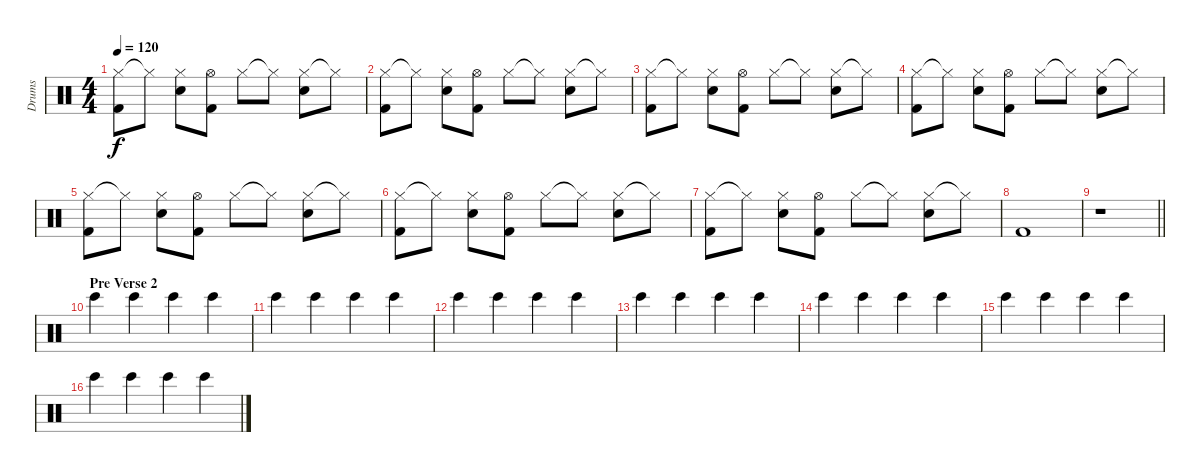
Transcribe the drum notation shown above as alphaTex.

\track ("Drums" "Drums") {instrument percussion}
\staff {score}
\articulation defaults
\ts (4 4)
\tempo 120
\clef neutral
\ks c
("Hi-Hat (closed)" "Kick (hit) 2").8{dy f} "Hi-Hat (closed)"{t}.8 ("Hi-Hat (closed)" "Electric Snare (hit)").8 ("Hi-Hat (open)" "Kick (hit) 2").8 "Hi-Hat (closed)".8 "Hi-Hat (closed)"{t}.8 ("Hi-Hat (closed)" "Electric Snare (hit)").8 "Hi-Hat (closed)"{t}.8 |
("Hi-Hat (closed)" "Kick (hit) 2").8 "Hi-Hat (closed)"{t}.8 ("Hi-Hat (closed)" "Electric Snare (hit)").8 ("Hi-Hat (open)" "Kick (hit) 2").8 "Hi-Hat (closed)".8 "Hi-Hat (closed)"{t}.8 ("Hi-Hat (closed)" "Electric Snare (hit)").8 "Hi-Hat (closed)"{t}.8 |
("Hi-Hat (closed)" "Kick (hit) 2").8 "Hi-Hat (closed)"{t}.8 ("Hi-Hat (closed)" "Electric Snare (hit)").8 ("Hi-Hat (open)" "Kick (hit) 2").8 "Hi-Hat (closed)".8 "Hi-Hat (closed)"{t}.8 ("Hi-Hat (closed)" "Electric Snare (hit)").8 "Hi-Hat (closed)"{t}.8 |
("Hi-Hat (closed)" "Kick (hit) 2").8 "Hi-Hat (closed)"{t}.8 ("Hi-Hat (closed)" "Electric Snare (hit)").8 ("Hi-Hat (open)" "Kick (hit) 2").8 "Hi-Hat (closed)".8 "Hi-Hat (closed)"{t}.8 ("Hi-Hat (closed)" "Electric Snare (hit)").8 "Hi-Hat (closed)"{t}.8 |
("Hi-Hat (closed)" "Kick (hit) 2").8 "Hi-Hat (closed)"{t}.8 ("Hi-Hat (closed)" "Electric Snare (hit)").8 ("Hi-Hat (open)" "Kick (hit) 2").8 "Hi-Hat (closed)".8 "Hi-Hat (closed)"{t}.8 ("Hi-Hat (closed)" "Electric Snare (hit)").8 "Hi-Hat (closed)"{t}.8 |
("Hi-Hat (closed)" "Kick (hit) 2").8 "Hi-Hat (closed)"{t}.8 ("Hi-Hat (closed)" "Electric Snare (hit)").8 ("Hi-Hat (open)" "Kick (hit) 2").8 "Hi-Hat (closed)".8 "Hi-Hat (closed)"{t}.8 ("Hi-Hat (closed)" "Electric Snare (hit)").8 "Hi-Hat (closed)"{t}.8 |
("Hi-Hat (closed)" "Kick (hit) 2").8 "Hi-Hat (closed)"{t}.8 ("Hi-Hat (closed)" "Electric Snare (hit)").8 ("Hi-Hat (open)" "Kick (hit) 2").8 "Hi-Hat (closed)".8 "Hi-Hat (closed)"{t}.8 ("Hi-Hat (closed)" "Electric Snare (hit)").8 "Hi-Hat (closed)"{t}.8 |
"Kick (hit) 2".1 |
\barLineRight lightlight
r.1 |
\section ("" "Pre Verse 2")
"Bongo High (hit)".4 "Bongo High (hit)".4 "Bongo High (hit)".4 "Bongo High (hit)".4 |
"Bongo High (hit)".4 "Bongo High (hit)".4 "Bongo High (hit)".4 "Bongo High (hit)".4 |
"Bongo High (hit)".4 "Bongo High (hit)".4 "Bongo High (hit)".4 "Bongo High (hit)".4 |
"Bongo High (hit)".4 "Bongo High (hit)".4 "Bongo High (hit)".4 "Bongo High (hit)".4 |
"Bongo High (hit)".4 "Bongo High (hit)".4 "Bongo High (hit)".4 "Bongo High (hit)".4 |
"Bongo High (hit)".4 "Bongo High (hit)".4 "Bongo High (hit)".4 "Bongo High (hit)".4 |
"Bongo High (hit)".4 "Bongo High (hit)".4 "Bongo High (hit)".4 "Bongo High (hit)".4
